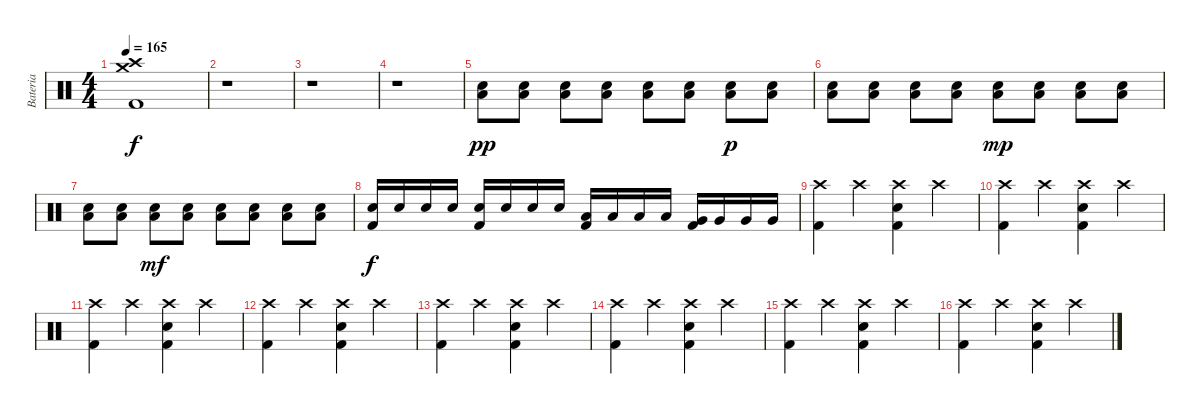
\track ("Bateria" "Bateria") {instrument percussion}
\staff {score}
\articulation defaults
\ts (4 4)
\tempo 165
\clef neutral
\ks c
("Crash medium (hit)" "Crash high (hit)" "Kick (hit) 2").1{dy f} |
r.1 |
r.1 |
r.1 |
("Snare (hit) 2" "Low Floor Tom (hit)").8{dy pp} ("Snare (hit) 2" "Low Floor Tom (hit)").8 ("Snare (hit) 2" "Low Floor Tom (hit)").8 ("Snare (hit) 2" "Low Floor Tom (hit)").8 ("Snare (hit) 2" "Low Floor Tom (hit)").8 ("Snare (hit) 2" "Low Floor Tom (hit)").8 ("Snare (hit) 2" "Low Floor Tom (hit)").8{dy p} ("Snare (hit) 2" "Low Floor Tom (hit)").8 |
("Snare (hit) 2" "Low Floor Tom (hit)").8 ("Snare (hit) 2" "Low Floor Tom (hit)").8 ("Snare (hit) 2" "Low Floor Tom (hit)").8 ("Snare (hit) 2" "Low Floor Tom (hit)").8 ("Snare (hit) 2" "Low Floor Tom (hit)").8{dy mp} ("Snare (hit) 2" "Low Floor Tom (hit)").8 ("Snare (hit) 2" "Low Floor Tom (hit)").8 ("Snare (hit) 2" "Low Floor Tom (hit)").8 |
("Snare (hit) 2" "Low Floor Tom (hit)").8 ("Snare (hit) 2" "Low Floor Tom (hit)").8 ("Snare (hit) 2" "Low Floor Tom (hit)").8{dy mf} ("Snare (hit) 2" "Low Floor Tom (hit)").8 ("Snare (hit) 2" "Low Floor Tom (hit)").8 ("Snare (hit) 2" "Low Floor Tom (hit)").8 ("Snare (hit) 2" "Low Floor Tom (hit)").8 ("Snare (hit) 2" "Low Floor Tom (hit)").8 |
("Snare (hit) 2" "Kick (hit) 2").16{dy f} "Snare (hit) 2".16 "Snare (hit) 2".16 "Snare (hit) 2".16 ("Snare (hit) 2" "Kick (hit) 2").16 "Snare (hit) 2".16 "Snare (hit) 2".16 "Snare (hit) 2".16 ("Low Tom (hit)" "Kick (hit) 2").16 "Low Tom (hit)".16 "Low Tom (hit)".16 "Low Tom (hit)".16 ("Very Low Tom (hit)" "Kick (hit) 2").16 "Very Low Tom (hit)".16 "Very Low Tom (hit)".16 "Very Low Tom (hit)".16 |
("Crash high (hit)" "Kick (hit) 2").4 "Crash high (hit)".4 ("Crash high (hit)" "Kick (hit) 2" "Snare (hit) 2").4 "Crash high (hit)".4 |
("Crash high (hit)" "Kick (hit) 2").4 "Crash high (hit)".4 ("Crash high (hit)" "Kick (hit) 2" "Snare (hit) 2").4 "Crash high (hit)".4 |
("Crash high (hit)" "Kick (hit) 2").4 "Crash high (hit)".4 ("Crash high (hit)" "Kick (hit) 2" "Snare (hit) 2").4 "Crash high (hit)".4 |
("Crash high (hit)" "Kick (hit) 2").4 "Crash high (hit)".4 ("Crash high (hit)" "Kick (hit) 2" "Snare (hit) 2").4 "Crash high (hit)".4 |
("Crash high (hit)" "Kick (hit) 2").4 "Crash high (hit)".4 ("Crash high (hit)" "Kick (hit) 2" "Snare (hit) 2").4 "Crash high (hit)".4 |
("Crash high (hit)" "Kick (hit) 2").4 "Crash high (hit)".4 ("Crash high (hit)" "Kick (hit) 2" "Snare (hit) 2").4 "Crash high (hit)".4 |
("Crash high (hit)" "Kick (hit) 2").4 "Crash high (hit)".4 ("Crash high (hit)" "Kick (hit) 2" "Snare (hit) 2").4 "Crash high (hit)".4 |
("Crash high (hit)" "Kick (hit) 2").4 "Crash high (hit)".4 ("Crash high (hit)" "Kick (hit) 2" "Snare (hit) 2").4 "Crash high (hit)".4
